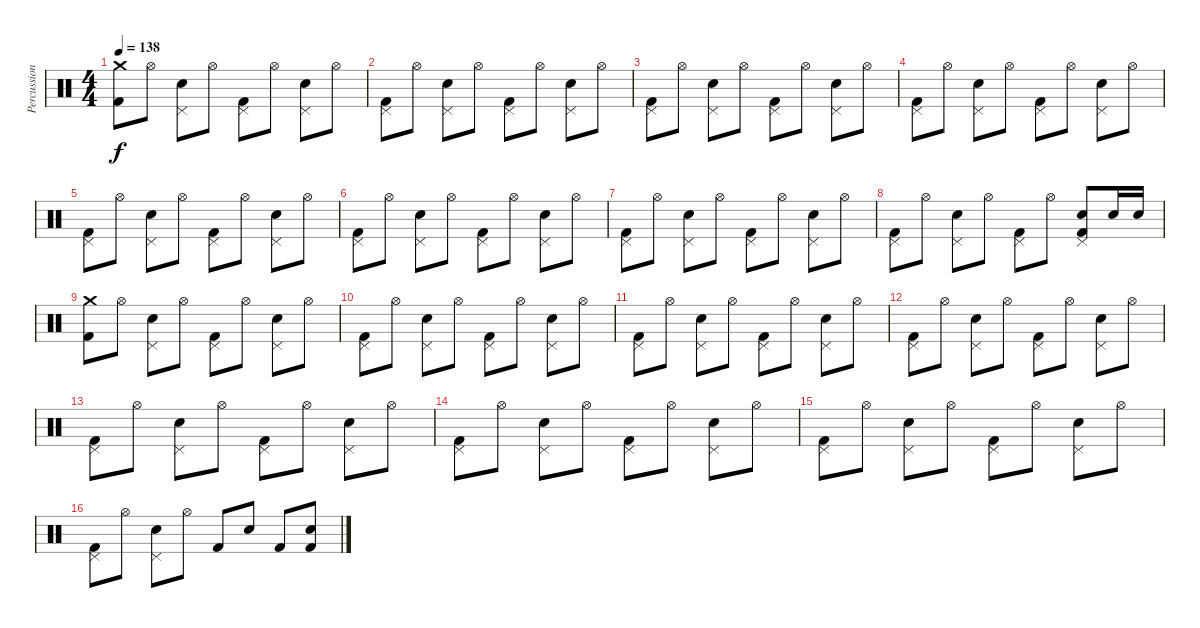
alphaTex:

\track ("Percussion" "Percussion") {instrument percussion}
\staff {score}
\articulation defaults
\ts (4 4)
\tempo 138
\clef neutral
\ks c
("Crash medium (hit)" "Kick (hit) 2").8{dy f} "Hi-Hat (open)".8 ("Pedal Hi-Hat (hit)" "Snare (hit) 2").8 "Hi-Hat (open)".8 ("Pedal Hi-Hat (hit)" "Kick (hit) 2").8 "Hi-Hat (open)".8 ("Pedal Hi-Hat (hit)" "Snare (hit) 2").8 "Hi-Hat (open)".8 |
("Pedal Hi-Hat (hit)" "Kick (hit) 2").8 "Hi-Hat (open)".8 ("Pedal Hi-Hat (hit)" "Snare (hit) 2").8 "Hi-Hat (open)".8 ("Pedal Hi-Hat (hit)" "Kick (hit) 2").8 "Hi-Hat (open)".8 ("Pedal Hi-Hat (hit)" "Snare (hit) 2").8 "Hi-Hat (open)".8 |
("Pedal Hi-Hat (hit)" "Kick (hit) 2").8 "Hi-Hat (open)".8 ("Pedal Hi-Hat (hit)" "Snare (hit) 2").8 "Hi-Hat (open)".8 ("Pedal Hi-Hat (hit)" "Kick (hit) 2").8 "Hi-Hat (open)".8 ("Pedal Hi-Hat (hit)" "Snare (hit) 2").8 "Hi-Hat (open)".8 |
("Pedal Hi-Hat (hit)" "Kick (hit) 2").8 "Hi-Hat (open)".8 ("Pedal Hi-Hat (hit)" "Snare (hit) 2").8 "Hi-Hat (open)".8 ("Pedal Hi-Hat (hit)" "Kick (hit) 2").8 "Hi-Hat (open)".8 ("Pedal Hi-Hat (hit)" "Snare (hit) 2").8 "Hi-Hat (open)".8 |
("Pedal Hi-Hat (hit)" "Kick (hit) 2").8 "Hi-Hat (open)".8 ("Pedal Hi-Hat (hit)" "Snare (hit) 2").8 "Hi-Hat (open)".8 ("Pedal Hi-Hat (hit)" "Kick (hit) 2").8 "Hi-Hat (open)".8 ("Pedal Hi-Hat (hit)" "Snare (hit) 2").8 "Hi-Hat (open)".8 |
("Pedal Hi-Hat (hit)" "Kick (hit) 2").8 "Hi-Hat (open)".8 ("Pedal Hi-Hat (hit)" "Snare (hit) 2").8 "Hi-Hat (open)".8 ("Pedal Hi-Hat (hit)" "Kick (hit) 2").8 "Hi-Hat (open)".8 ("Pedal Hi-Hat (hit)" "Snare (hit) 2").8 "Hi-Hat (open)".8 |
("Pedal Hi-Hat (hit)" "Kick (hit) 2").8 "Hi-Hat (open)".8 ("Pedal Hi-Hat (hit)" "Snare (hit) 2").8 "Hi-Hat (open)".8 ("Pedal Hi-Hat (hit)" "Kick (hit) 2").8 "Hi-Hat (open)".8 ("Pedal Hi-Hat (hit)" "Snare (hit) 2").8 "Hi-Hat (open)".8 |
("Pedal Hi-Hat (hit)" "Kick (hit) 2").8 "Hi-Hat (open)".8 ("Pedal Hi-Hat (hit)" "Snare (hit) 2").8 "Hi-Hat (open)".8 ("Pedal Hi-Hat (hit)" "Kick (hit) 2").8 "Hi-Hat (open)".8 ("Pedal Hi-Hat (hit)" "Snare (hit) 2" "Kick (hit) 2").8 "Snare (hit) 2".16 "Snare (hit) 2".16 |
("Crash medium (hit)" "Kick (hit) 2").8 "Hi-Hat (open)".8 ("Pedal Hi-Hat (hit)" "Snare (hit) 2").8 "Hi-Hat (open)".8 ("Pedal Hi-Hat (hit)" "Kick (hit) 2").8 "Hi-Hat (open)".8 ("Pedal Hi-Hat (hit)" "Snare (hit) 2").8 "Hi-Hat (open)".8 |
("Pedal Hi-Hat (hit)" "Kick (hit) 2").8 "Hi-Hat (open)".8 ("Pedal Hi-Hat (hit)" "Snare (hit) 2").8 "Hi-Hat (open)".8 ("Pedal Hi-Hat (hit)" "Kick (hit) 2").8 "Hi-Hat (open)".8 ("Pedal Hi-Hat (hit)" "Snare (hit) 2").8 "Hi-Hat (open)".8 |
("Pedal Hi-Hat (hit)" "Kick (hit) 2").8 "Hi-Hat (open)".8 ("Pedal Hi-Hat (hit)" "Snare (hit) 2").8 "Hi-Hat (open)".8 ("Pedal Hi-Hat (hit)" "Kick (hit) 2").8 "Hi-Hat (open)".8 ("Pedal Hi-Hat (hit)" "Snare (hit) 2").8 "Hi-Hat (open)".8 |
("Pedal Hi-Hat (hit)" "Kick (hit) 2").8 "Hi-Hat (open)".8 ("Pedal Hi-Hat (hit)" "Snare (hit) 2").8 "Hi-Hat (open)".8 ("Pedal Hi-Hat (hit)" "Kick (hit) 2").8 "Hi-Hat (open)".8 ("Pedal Hi-Hat (hit)" "Snare (hit) 2").8 "Hi-Hat (open)".8 |
("Pedal Hi-Hat (hit)" "Kick (hit) 2").8 "Hi-Hat (open)".8 ("Pedal Hi-Hat (hit)" "Snare (hit) 2").8 "Hi-Hat (open)".8 ("Pedal Hi-Hat (hit)" "Kick (hit) 2").8 "Hi-Hat (open)".8 ("Pedal Hi-Hat (hit)" "Snare (hit) 2").8 "Hi-Hat (open)".8 |
("Pedal Hi-Hat (hit)" "Kick (hit) 2").8 "Hi-Hat (open)".8 ("Pedal Hi-Hat (hit)" "Snare (hit) 2").8 "Hi-Hat (open)".8 ("Pedal Hi-Hat (hit)" "Kick (hit) 2").8 "Hi-Hat (open)".8 ("Pedal Hi-Hat (hit)" "Snare (hit) 2").8 "Hi-Hat (open)".8 |
("Pedal Hi-Hat (hit)" "Kick (hit) 2").8 "Hi-Hat (open)".8 ("Pedal Hi-Hat (hit)" "Snare (hit) 2").8 "Hi-Hat (open)".8 ("Pedal Hi-Hat (hit)" "Kick (hit) 2").8 "Hi-Hat (open)".8 ("Pedal Hi-Hat (hit)" "Snare (hit) 2").8 "Hi-Hat (open)".8 |
("Pedal Hi-Hat (hit)" "Kick (hit) 2").8 "Hi-Hat (open)".8 ("Pedal Hi-Hat (hit)" "Snare (hit) 2").8 "Hi-Hat (open)".8 "Kick (hit) 2".8 "Snare (hit) 2".8 "Kick (hit) 2".8 ("Snare (hit) 2" "Kick (hit) 2").8
